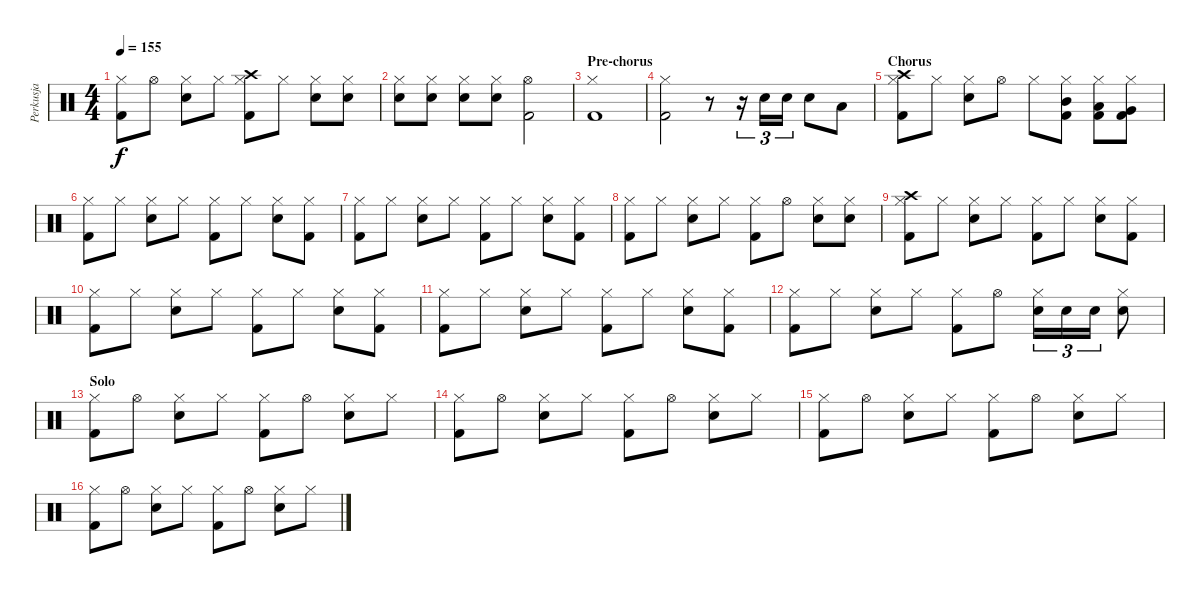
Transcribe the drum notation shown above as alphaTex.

\track ("Perkusja" "Perkusja") {instrument percussion}
\staff {score}
\articulation defaults
\ts (4 4)
\tempo 155
\clef neutral
\ks c
("Hi-Hat (closed)" "Kick (hit) 2").8{dy f} "Hi-Hat (open)".8 ("Hi-Hat (closed)" "Electric Snare (hit)").8 "Hi-Hat (closed)".8 ("Hi-Hat (closed)" "Kick (hit) 2" "Crash high (hit)").8 "Hi-Hat (closed)".8 ("Hi-Hat (closed)" "Electric Snare (hit)").8 ("Hi-Hat (closed)" "Electric Snare (hit)").8 |
("Hi-Hat (closed)" "Electric Snare (hit)").8 ("Hi-Hat (closed)" "Electric Snare (hit)").8 ("Hi-Hat (closed)" "Electric Snare (hit)").8 ("Hi-Hat (closed)" "Electric Snare (hit)").8 ("Kick (hit) 2" "Hi-Hat (open)").2 |
\section ("" "Pre-chorus")
("Kick (hit) 2" "Hi-Hat (closed)").1 |
("Kick (hit) 2" "Hi-Hat (closed)").2 r.8 r.16{tu (3 2)} "Electric Snare (hit)".16{tu (3 2)} "Electric Snare (hit)".16{tu (3 2)} "Electric Snare (hit)".8 "Low Tom (hit)".8 |
\section ("" "Chorus")
("Hi-Hat (closed)" "Kick (hit) 2" "Crash high (hit)").8 "Hi-Hat (closed)".8 ("Hi-Hat (closed)" "Electric Snare (hit)").8 "Hi-Hat (open)".8 "Hi-Hat (closed)".8 ("Hi-Hat (closed)" "Mid Tom (hit)" "Kick (hit) 2").8 ("Hi-Hat (closed)" "Low Tom (hit)" "Kick (hit) 2").8 ("Hi-Hat (closed)" "Very Low Tom (hit)" "Kick (hit) 2").8 |
("Hi-Hat (closed)" "Kick (hit) 2").8 "Hi-Hat (closed)".8 ("Hi-Hat (closed)" "Electric Snare (hit)").8 "Hi-Hat (closed)".8 ("Hi-Hat (closed)" "Kick (hit) 2").8 "Hi-Hat (closed)".8 ("Hi-Hat (closed)" "Electric Snare (hit)").8 ("Hi-Hat (closed)" "Kick (hit) 2").8 |
("Hi-Hat (closed)" "Kick (hit) 2").8 "Hi-Hat (closed)".8 ("Hi-Hat (closed)" "Electric Snare (hit)").8 "Hi-Hat (closed)".8 ("Hi-Hat (closed)" "Kick (hit) 2").8 "Hi-Hat (closed)".8 ("Hi-Hat (closed)" "Electric Snare (hit)").8 ("Hi-Hat (closed)" "Kick (hit) 2").8 |
("Hi-Hat (closed)" "Kick (hit) 2").8 "Hi-Hat (closed)".8 ("Hi-Hat (closed)" "Electric Snare (hit)").8 "Hi-Hat (closed)".8 ("Hi-Hat (closed)" "Kick (hit) 2").8 "Hi-Hat (open)".8 ("Hi-Hat (closed)" "Electric Snare (hit)").8 ("Hi-Hat (closed)" "Electric Snare (hit)").8 |
("Hi-Hat (closed)" "Kick (hit) 2" "Crash high (hit)").8 "Hi-Hat (closed)".8 ("Hi-Hat (closed)" "Electric Snare (hit)").8 "Hi-Hat (closed)".8 ("Hi-Hat (closed)" "Kick (hit) 2").8 "Hi-Hat (closed)".8 ("Hi-Hat (closed)" "Electric Snare (hit)").8 ("Hi-Hat (closed)" "Kick (hit) 2").8 |
("Hi-Hat (closed)" "Kick (hit) 2").8 "Hi-Hat (closed)".8 ("Hi-Hat (closed)" "Electric Snare (hit)").8 "Hi-Hat (closed)".8 ("Hi-Hat (closed)" "Kick (hit) 2").8 "Hi-Hat (closed)".8 ("Hi-Hat (closed)" "Electric Snare (hit)").8 ("Hi-Hat (closed)" "Kick (hit) 2").8 |
("Hi-Hat (closed)" "Kick (hit) 2").8 "Hi-Hat (closed)".8 ("Hi-Hat (closed)" "Electric Snare (hit)").8 "Hi-Hat (closed)".8 ("Hi-Hat (closed)" "Kick (hit) 2").8 "Hi-Hat (closed)".8 ("Hi-Hat (closed)" "Electric Snare (hit)").8 ("Hi-Hat (closed)" "Kick (hit) 2").8 |
("Hi-Hat (closed)" "Kick (hit) 2").8 "Hi-Hat (closed)".8 ("Hi-Hat (closed)" "Electric Snare (hit)").8 "Hi-Hat (closed)".8 ("Hi-Hat (closed)" "Kick (hit) 2").8 "Hi-Hat (open)".8 ("Hi-Hat (closed)" "Electric Snare (hit)").16{tu (3 2)} "Electric Snare (hit)".16{tu (3 2)} "Electric Snare (hit)".16{tu (3 2)} ("Hi-Hat (closed)" "Electric Snare (hit)").8 |
\section ("" "Solo")
("Hi-Hat (closed)" "Kick (hit) 2").8 "Hi-Hat (open)".8 ("Hi-Hat (closed)" "Electric Snare (hit)").8 "Hi-Hat (closed)".8 ("Hi-Hat (closed)" "Kick (hit) 2").8 "Hi-Hat (open)".8 ("Hi-Hat (closed)" "Electric Snare (hit)").8 "Hi-Hat (closed)".8 |
("Hi-Hat (closed)" "Kick (hit) 2").8 "Hi-Hat (open)".8 ("Hi-Hat (closed)" "Electric Snare (hit)").8 "Hi-Hat (closed)".8 ("Hi-Hat (closed)" "Kick (hit) 2").8 "Hi-Hat (open)".8 ("Hi-Hat (closed)" "Electric Snare (hit)").8 "Hi-Hat (closed)".8 |
("Hi-Hat (closed)" "Kick (hit) 2").8 "Hi-Hat (open)".8 ("Hi-Hat (closed)" "Electric Snare (hit)").8 "Hi-Hat (closed)".8 ("Hi-Hat (closed)" "Kick (hit) 2").8 "Hi-Hat (open)".8 ("Hi-Hat (closed)" "Electric Snare (hit)").8 "Hi-Hat (closed)".8 |
("Hi-Hat (closed)" "Kick (hit) 2").8 "Hi-Hat (open)".8 ("Hi-Hat (closed)" "Electric Snare (hit)").8 "Hi-Hat (closed)".8 ("Hi-Hat (closed)" "Kick (hit) 2").8 "Hi-Hat (open)".8 ("Hi-Hat (closed)" "Electric Snare (hit)").8 "Hi-Hat (closed)".8
